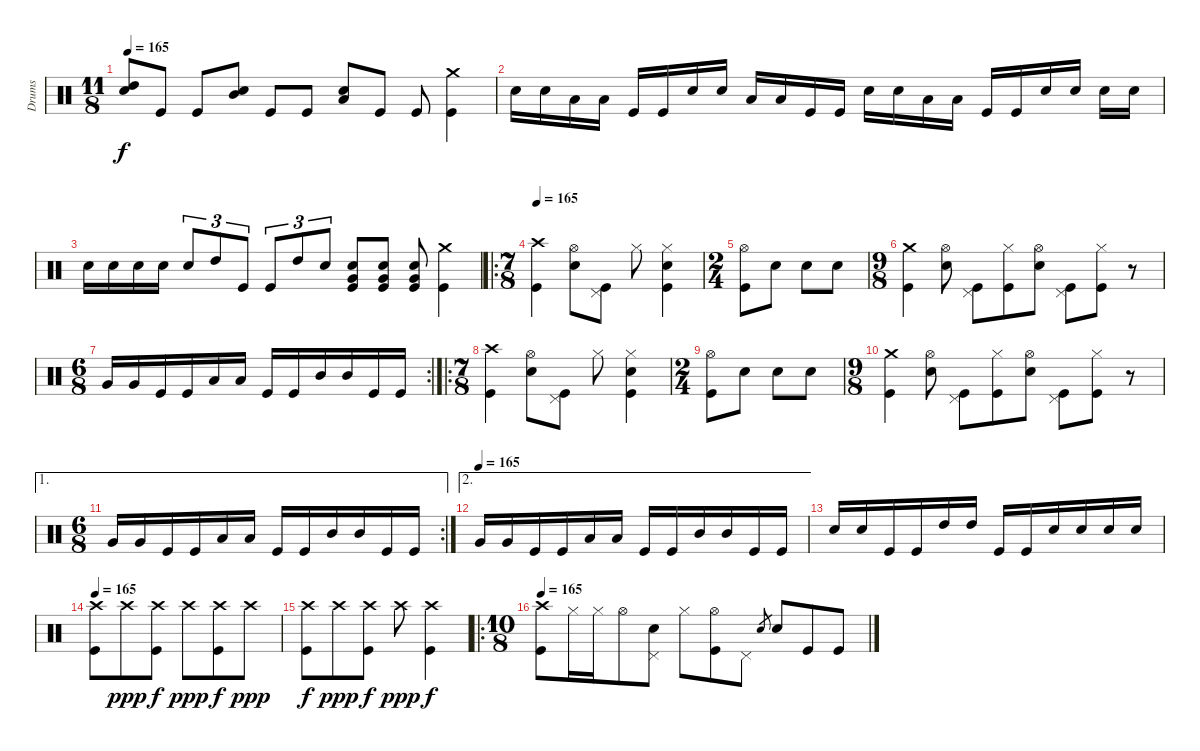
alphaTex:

\track ("Drums" "Drums") {instrument percussion}
\staff {score}
\articulation defaults
\ts (11 8)
\tempo 165
\clef neutral
\ks c
("Electric Snare (hit)" "High Tom (hit)").8{dy f} "Kick (hit)".8 "Kick (hit)".8 ("Electric Snare (hit)" "Mid Tom (hit)").8 "Kick (hit)".8 "Kick (hit)".8 ("Electric Snare (hit)" "Low Tom (hit)").8 "Kick (hit)".8 "Kick (hit)".8 ("Crash medium (hit)" "Kick (hit)").4 |
"Electric Snare (hit)".16 "Electric Snare (hit)".16 "Low Floor Tom (hit)".16 "Low Tom (hit)".16 "Kick (hit)".16 "Kick (hit)".16 "Electric Snare (hit)".16 "Electric Snare (hit)".16 "Low Floor Tom (hit)".16 "Low Tom (hit)".16 "Kick (hit)".16 "Kick (hit)".16 "Electric Snare (hit)".16 "Electric Snare (hit)".16 "Low Floor Tom (hit)".16 "Low Tom (hit)".16 "Kick (hit)".16 "Kick (hit)".16 "Electric Snare (hit)".16 "Electric Snare (hit)".16 "Electric Snare (hit)".16 "Electric Snare (hit)".16 |
"Electric Snare (hit)".16 "Electric Snare (hit)".16 "Electric Snare (hit)".16 "Electric Snare (hit)".16 "Electric Snare (hit)".8{tu (3 2)} "High Tom (hit)".8{tu (3 2)} "Kick (hit)".8{tu (3 2)} "Kick (hit)".8{tu (3 2)} "High Tom (hit)".8{tu (3 2)} "Electric Snare (hit)".8{tu (3 2)} ("Electric Snare (hit)" "Very Low Tom (hit)" "Kick (hit)").8 ("Electric Snare (hit)" "Very Low Tom (hit)" "Kick (hit)").8 ("Electric Snare (hit)" "Very Low Tom (hit)" "Kick (hit)").8 ("Crash medium (hit)" "Kick (hit)").4 |
\ro
\ts (7 8)
\tempo 165
("Crash high (hit)" "Kick (hit)").4 ("Hi-Hat (open)" "Electric Snare (hit)").8 ("Pedal Hi-Hat (hit)" "Kick (hit)").8 "Hi-Hat (closed)".8 ("Hi-Hat (closed)" "Electric Snare (hit)" "Kick (hit)").4 |
\ts (2 4)
("Hi-Hat (open)" "Kick (hit)").8 "Electric Snare (hit)".8 "Electric Snare (hit)".8 "Electric Snare (hit)".8 |
\ts (9 8)
("Crash medium (hit)" "Kick (hit)").4 ("Hi-Hat (open)" "Electric Snare (hit)").8 ("Pedal Hi-Hat (hit)" "Kick (hit)").8 ("Hi-Hat (closed)" "Kick (hit)").8 ("Hi-Hat (open)" "Electric Snare (hit)").8 ("Pedal Hi-Hat (hit)" "Kick (hit)").8 ("Hi-Hat (closed)" "Kick (hit)").8 r.8 |
\rc 2
\ts (6 8)
"Very Low Tom (hit)".16 "Very Low Tom (hit)".16 "Kick (hit)".16 "Kick (hit)".16 "Low Tom (hit)".16 "Low Tom (hit)".16 "Kick (hit)".16 "Kick (hit)".16 "Mid Tom (hit)".16 "Mid Tom (hit)".16 "Kick (hit)".16 "Kick (hit)".16 |
\ro
\ts (7 8)
("Crash high (hit)" "Kick (hit)").4 ("Hi-Hat (open)" "Electric Snare (hit)").8 ("Pedal Hi-Hat (hit)" "Kick (hit)").8 "Hi-Hat (closed)".8 ("Hi-Hat (closed)" "Electric Snare (hit)" "Kick (hit)").4 |
\ts (2 4)
("Hi-Hat (open)" "Kick (hit)").8 "Electric Snare (hit)".8 "Electric Snare (hit)".8 "Electric Snare (hit)".8 |
\ts (9 8)
("Crash medium (hit)" "Kick (hit)").4 ("Hi-Hat (open)" "Electric Snare (hit)").8 ("Pedal Hi-Hat (hit)" "Kick (hit)").8 ("Hi-Hat (closed)" "Kick (hit)").8 ("Hi-Hat (open)" "Electric Snare (hit)").8 ("Pedal Hi-Hat (hit)" "Kick (hit)").8 ("Hi-Hat (closed)" "Kick (hit)").8 r.8 |
\ae 1
\rc 2
\ts (6 8)
"Very Low Tom (hit)".16 "Very Low Tom (hit)".16 "Kick (hit)".16 "Kick (hit)".16 "Low Tom (hit)".16 "Low Tom (hit)".16 "Kick (hit)".16 "Kick (hit)".16 "Mid Tom (hit)".16 "Mid Tom (hit)".16 "Kick (hit)".16 "Kick (hit)".16 |
\ae 2
\tempo (165)
"Very Low Tom (hit)".16 "Very Low Tom (hit)".16 "Kick (hit)".16 "Kick (hit)".16 "Low Tom (hit)".16 "Low Tom (hit)".16 "Kick (hit)".16 "Kick (hit)".16 "Mid Tom (hit)".16 "Mid Tom (hit)".16 "Kick (hit)".16 "Kick (hit)".16 |
"Electric Snare (hit)".16 "Electric Snare (hit)".16 "Kick (hit)".16 "Kick (hit)".16 "High Tom (hit)".16 "High Tom (hit)".16 "Kick (hit)".16 "Kick (hit)".16 "Electric Snare (hit)".16 "Electric Snare (hit)".16 "Electric Snare (hit)".16 "Electric Snare (hit)".16 |
\tempo 165
("Crash high (hit)" "Kick (hit)").8 "Crash high (hit)".8{dy ppp} ("Crash high (hit)" "Kick (hit)").8{dy f} "Crash high (hit)".8{dy ppp} ("Crash high (hit)" "Kick (hit)").8{dy f} "Crash high (hit)".8{dy ppp} |
("Crash high (hit)" "Kick (hit)").8{dy f} "Crash high (hit)".8{dy ppp} ("Crash high (hit)" "Kick (hit)").8{dy f} "Crash high (hit)".8{dy ppp} ("Crash high (hit)" "Kick (hit)").4{dy f} |
\ro
\ts (10 8)
\tempo 165
("Crash high (hit)" "Kick (hit)").8 "Hi-Hat (closed)".16 "Hi-Hat (closed)".16 "Hi-Hat (open)".8 ("Pedal Hi-Hat (hit)" "Electric Snare (hit)").8 "Hi-Hat (closed)".8 ("Hi-Hat (open)" "Kick (hit)").8 "Pedal Hi-Hat (hit)".8 "Electric Snare (hit)".8{gr} "Electric Snare (hit)".8 "Kick (hit)".8 "Kick (hit)".8
